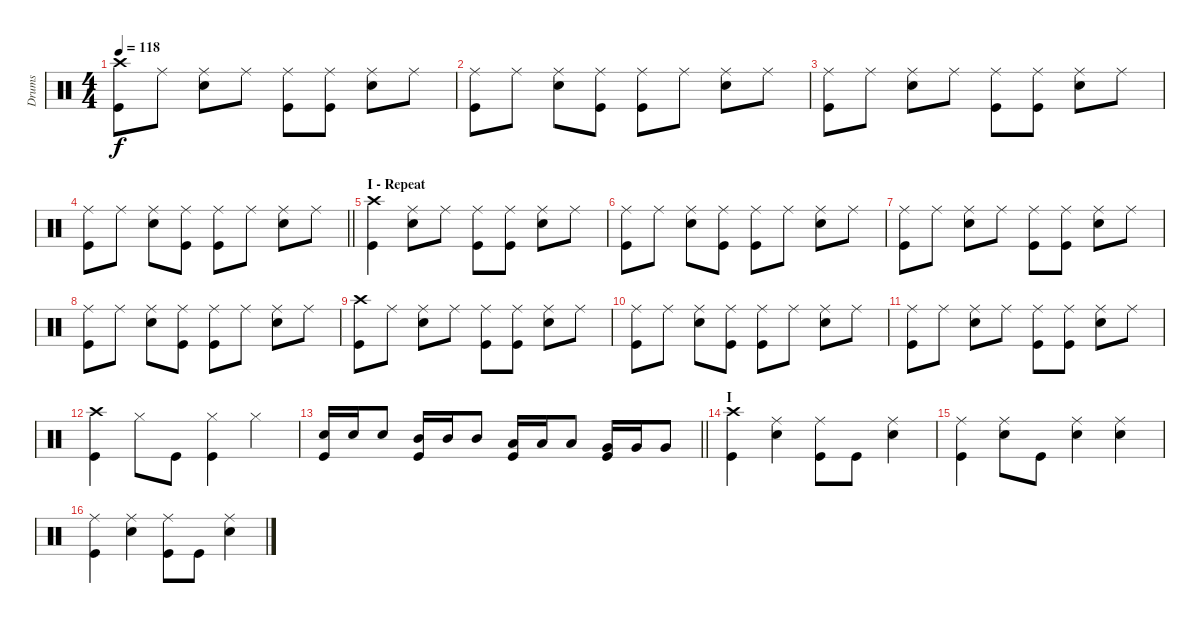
\track ("Drums" "Drums") {instrument percussion}
\staff {score}
\articulation defaults
\ts (4 4)
\tempo 118
\clef neutral
\ks c
("Crash high (hit)" "Kick (hit)").8{dy f} "Ride (middle)".8 ("Ride (middle)" "Electric Snare (hit)").8 "Ride (middle)".8 ("Ride (middle)" "Kick (hit)").8 ("Ride (middle)" "Kick (hit)").8 ("Ride (middle)" "Electric Snare (hit)").8 "Ride (middle)".8 |
("Ride (middle)" "Kick (hit)").8 "Ride (middle)".8 ("Ride (middle)" "Electric Snare (hit)").8 ("Ride (middle)" "Kick (hit)").8 ("Ride (middle)" "Kick (hit)").8 "Ride (middle)".8 ("Ride (middle)" "Electric Snare (hit)").8 "Ride (middle)".8 |
("Ride (middle)" "Kick (hit)").8 "Ride (middle)".8 ("Ride (middle)" "Electric Snare (hit)").8 "Ride (middle)".8 ("Ride (middle)" "Kick (hit)").8 ("Ride (middle)" "Kick (hit)").8 ("Ride (middle)" "Electric Snare (hit)").8 "Ride (middle)".8 |
\barLineRight lightlight
("Ride (middle)" "Kick (hit)").8 "Ride (middle)".8 ("Ride (middle)" "Electric Snare (hit)").8 ("Ride (middle)" "Kick (hit)").8 ("Ride (middle)" "Kick (hit)").8 "Ride (middle)".8 ("Ride (middle)" "Electric Snare (hit)").8 "Ride (middle)".8 |
\section ("" "I - Repeat")
("Crash high (hit)" "Kick (hit)").4 ("Ride (middle)" "Electric Snare (hit)").8 "Ride (middle)".8 ("Ride (middle)" "Kick (hit)").8 ("Ride (middle)" "Kick (hit)").8 ("Ride (middle)" "Electric Snare (hit)").8 "Ride (middle)".8 |
("Ride (middle)" "Kick (hit)").8 "Ride (middle)".8 ("Ride (middle)" "Electric Snare (hit)").8 ("Ride (middle)" "Kick (hit)").8 ("Ride (middle)" "Kick (hit)").8 "Ride (middle)".8 ("Ride (middle)" "Electric Snare (hit)").8 "Ride (middle)".8 |
("Ride (middle)" "Kick (hit)").8 "Ride (middle)".8 ("Ride (middle)" "Electric Snare (hit)").8 "Ride (middle)".8 ("Ride (middle)" "Kick (hit)").8 ("Ride (middle)" "Kick (hit)").8 ("Ride (middle)" "Electric Snare (hit)").8 "Ride (middle)".8 |
("Ride (middle)" "Kick (hit)").8 "Ride (middle)".8 ("Ride (middle)" "Electric Snare (hit)").8 ("Ride (middle)" "Kick (hit)").8 ("Ride (middle)" "Kick (hit)").8 "Ride (middle)".8 ("Ride (middle)" "Electric Snare (hit)").8 "Ride (middle)".8 |
("Crash high (hit)" "Kick (hit)").8 "Ride (middle)".8 ("Ride (middle)" "Electric Snare (hit)").8 "Ride (middle)".8 ("Ride (middle)" "Kick (hit)").8 ("Ride (middle)" "Kick (hit)").8 ("Ride (middle)" "Electric Snare (hit)").8 "Ride (middle)".8 |
("Ride (middle)" "Kick (hit)").8 "Ride (middle)".8 ("Ride (middle)" "Electric Snare (hit)").8 ("Ride (middle)" "Kick (hit)").8 ("Ride (middle)" "Kick (hit)").8 "Ride (middle)".8 ("Ride (middle)" "Electric Snare (hit)").8 "Ride (middle)".8 |
("Ride (middle)" "Kick (hit)").8 "Ride (middle)".8 ("Ride (middle)" "Electric Snare (hit)").8 "Ride (middle)".8 ("Ride (middle)" "Kick (hit)").8 ("Ride (middle)" "Kick (hit)").8 ("Ride (middle)" "Electric Snare (hit)").8 "Ride (middle)".8 |
("Crash high (hit)" "Kick (hit)").4 "Hi-Hat (closed)".8 "Kick (hit)".8 ("Hi-Hat (closed)" "Kick (hit)").4 "Hi-Hat (closed)".4 |
\barLineRight lightlight
("Electric Snare (hit)" "Kick (hit)").16 "Electric Snare (hit)".16 "Electric Snare (hit)".8 ("Mid Tom (hit)" "Kick (hit)").16 "Mid Tom (hit)".16 "Mid Tom (hit)".8 ("Low Tom (hit)" "Kick (hit)").16 "Low Tom (hit)".16 "Low Tom (hit)".8 ("Very Low Tom (hit)" "Kick (hit)").16 "Very Low Tom (hit)".16 "Very Low Tom (hit)".8 |
\section ("" "I")
("Crash high (hit)" "Kick (hit)").4 ("Ride (middle)" "Electric Snare (hit)").4 ("Ride (middle)" "Kick (hit)").8 "Kick (hit)".8 ("Ride (middle)" "Electric Snare (hit)").4 |
("Ride (middle)" "Kick (hit)").4 ("Ride (middle)" "Electric Snare (hit)").8 "Kick (hit)".8 ("Ride (middle)" "Electric Snare (hit)").4 ("Ride (middle)" "Electric Snare (hit)").4 |
("Ride (middle)" "Kick (hit)").4 ("Ride (middle)" "Electric Snare (hit)").4 ("Ride (middle)" "Kick (hit)").8 "Kick (hit)".8 ("Ride (middle)" "Electric Snare (hit)").4
